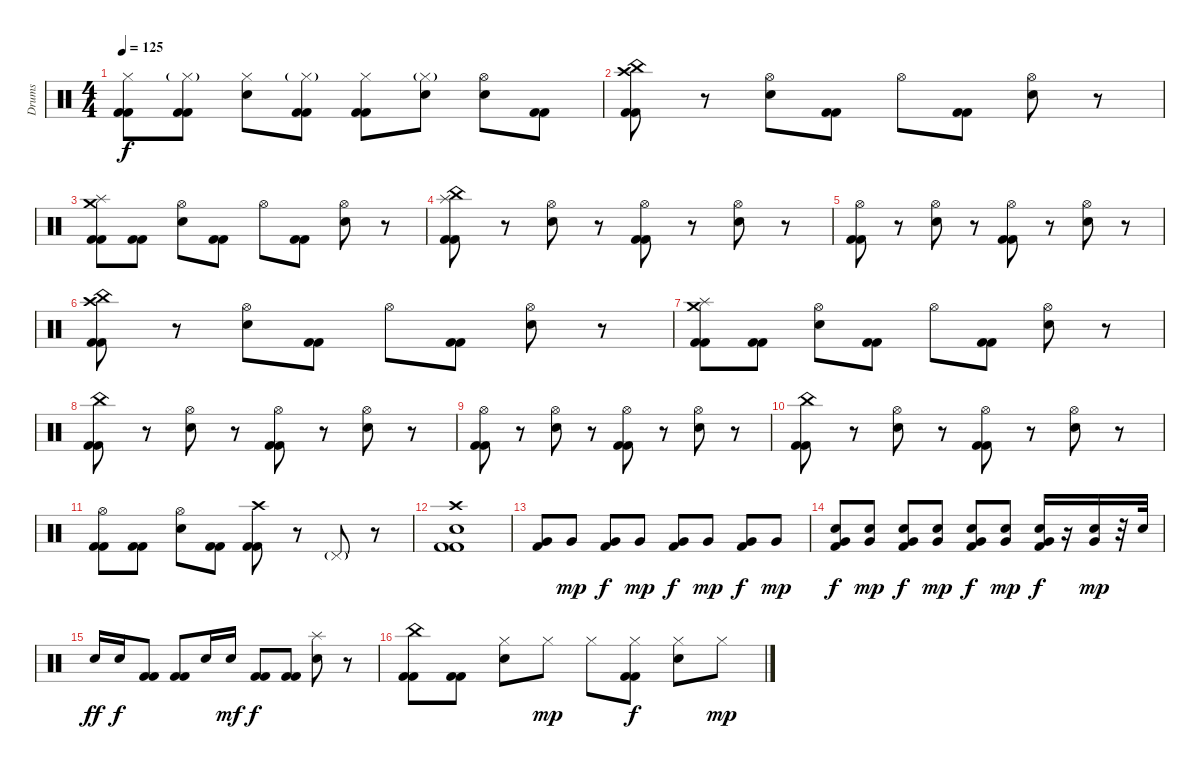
\track ("Drums" "Drums") {instrument percussion}
\staff {score}
\articulation defaults
\ts (4 4)
\tempo 125
\clef neutral
\ks c
("Hi-Hat (closed)" "Kick (hit) 2" "Kick (hit) 2").8{dy f} ("Hi-Hat (closed)"{g} "Kick (hit) 2" "Kick (hit) 2").8 ("Hi-Hat (closed)" "Electric Snare (hit)").8 ("Hi-Hat (closed)"{g} "Kick (hit) 2" "Kick (hit) 2").8 ("Hi-Hat (closed)" "Kick (hit) 2" "Kick (hit) 2").8 ("Hi-Hat (closed)"{g} "Electric Snare (hit)").8 ("Hi-Hat (open)" "Electric Snare (hit)").8 ("Kick (hit) 2" "Kick (hit) 2").8 |
("Crash high (hit)" "China (hit)" "Kick (hit) 2" "Kick (hit) 2").8 r.8 ("Hi-Hat (open)" "Electric Snare (hit)").8 ("Kick (hit) 2" "Kick (hit) 2").8 "Hi-Hat (open)".8 ("Kick (hit) 2" "Kick (hit) 2").8 ("Hi-Hat (open)" "Electric Snare (hit)").8 r.8 |
("Splash (hit)" "Crash medium (hit)" "Kick (hit) 2" "Kick (hit) 2").8 ("Kick (hit) 2" "Kick (hit) 2").8 ("Hi-Hat (open)" "Electric Snare (hit)").8 ("Kick (hit) 2" "Kick (hit) 2").8 "Hi-Hat (open)".8 ("Kick (hit) 2" "Kick (hit) 2").8 ("Hi-Hat (open)" "Electric Snare (hit)").8 r.8 |
("China (hit)" "Splash (hit)" "Kick (hit) 2" "Kick (hit) 2").8 r.8 ("Hi-Hat (open)" "Electric Snare (hit)").8 r.8 ("Hi-Hat (open)" "Kick (hit) 2" "Kick (hit) 2").8 r.8 ("Hi-Hat (open)" "Electric Snare (hit)").8 r.8 |
("Hi-Hat (open)" "Kick (hit) 2" "Kick (hit) 2").8 r.8 ("Hi-Hat (open)" "Electric Snare (hit)").8 r.8 ("Hi-Hat (open)" "Kick (hit) 2" "Kick (hit) 2").8 r.8 ("Hi-Hat (open)" "Electric Snare (hit)").8 r.8 |
("Crash high (hit)" "China (hit)" "Kick (hit) 2" "Kick (hit) 2").8 r.8 ("Hi-Hat (open)" "Electric Snare (hit)").8 ("Kick (hit) 2" "Kick (hit) 2").8 "Hi-Hat (open)".8 ("Kick (hit) 2" "Kick (hit) 2").8 ("Hi-Hat (open)" "Electric Snare (hit)").8 r.8 |
("Splash (hit)" "Crash medium (hit)" "Kick (hit) 2" "Kick (hit) 2").8 ("Kick (hit) 2" "Kick (hit) 2").8 ("Hi-Hat (open)" "Electric Snare (hit)").8 ("Kick (hit) 2" "Kick (hit) 2").8 "Hi-Hat (open)".8 ("Kick (hit) 2" "Kick (hit) 2").8 ("Hi-Hat (open)" "Electric Snare (hit)").8 r.8 |
("China (hit)" "Kick (hit) 2" "Kick (hit) 2").8 r.8 ("Hi-Hat (open)" "Electric Snare (hit)").8 r.8 ("Hi-Hat (open)" "Kick (hit) 2" "Kick (hit) 2").8 r.8 ("Hi-Hat (open)" "Electric Snare (hit)").8 r.8 |
("Hi-Hat (open)" "Kick (hit) 2" "Kick (hit) 2").8 r.8 ("Hi-Hat (open)" "Electric Snare (hit)").8 r.8 ("Hi-Hat (open)" "Kick (hit) 2" "Kick (hit) 2").8 r.8 ("Hi-Hat (open)" "Electric Snare (hit)").8 r.8 |
("China (hit)" "Kick (hit) 2" "Kick (hit) 2").8 r.8 ("Hi-Hat (open)" "Electric Snare (hit)").8 r.8 ("Hi-Hat (open)" "Kick (hit) 2" "Kick (hit) 2").8 r.8 ("Hi-Hat (open)" "Electric Snare (hit)").8 r.8 |
("Hi-Hat (open)" "Kick (hit) 2" "Kick (hit) 2").8 ("Kick (hit) 2" "Kick (hit) 2").8 ("Hi-Hat (open)" "Electric Snare (hit)").8 ("Kick (hit) 2" "Kick (hit) 2").8 ("Crash high (hit)" "Kick (hit) 2" "Kick (hit) 2").8 r.8 "Pedal Hi-Hat (hit)"{g}.8 r.8 |
("Crash high (hit)" "Electric Snare (hit)" "Kick (hit) 2" "Kick (hit) 2").1 |
("Very Low Tom (hit)" "Kick (hit) 2").8 "Very Low Tom (hit)".8{dy mp} ("Very Low Tom (hit)" "Kick (hit) 2").8{dy f} "Very Low Tom (hit)".8{dy mp} ("Very Low Tom (hit)" "Kick (hit) 2").8{dy f} "Very Low Tom (hit)".8{dy mp} ("Very Low Tom (hit)" "Kick (hit) 2").8{dy f} "Very Low Tom (hit)".8{dy mp} |
("Snare (hit) 2" "Very Low Tom (hit)" "Kick (hit) 2").8{dy f} ("Snare (hit) 2" "Very Low Tom (hit)").8{dy mp} ("Snare (hit) 2" "Very Low Tom (hit)" "Kick (hit) 2").8{dy f} ("Snare (hit) 2" "Very Low Tom (hit)").8{dy mp} ("Snare (hit) 2" "Very Low Tom (hit)" "Kick (hit) 2").8{dy f} ("Snare (hit) 2" "Very Low Tom (hit)").8{dy mp} ("Snare (hit) 2" "Very Low Tom (hit)" "Kick (hit) 2").16{dy f} r.16 ("Snare (hit) 2" "Very Low Tom (hit)").16{dy mp} r.32 "Snare (hit) 2".32 |
"Snare (hit) 2".16{dy ff} "Snare (hit) 2".16{dy f} ("Kick (hit) 2" "Kick (hit) 2").8 ("Kick (hit) 2" "Kick (hit) 2").8 "Snare (hit) 2".16 "Snare (hit) 2".16{dy mf} ("Kick (hit) 2" "Kick (hit) 2").8{dy f} ("Kick (hit) 2" "Kick (hit) 2").8 ("Splash (hit)" "Snare (hit) 2").8 r.8 |
("China (hit)" "Kick (hit) 2" "Kick (hit) 2").8 ("Kick (hit) 2" "Kick (hit) 2").8 ("Hi-Hat (closed)" "Snare (hit) 2").8 "Hi-Hat (closed)".8{dy mp} "Hi-Hat (closed)".8 ("Hi-Hat (closed)" "Kick (hit) 2" "Kick (hit) 2").8{dy f} ("Hi-Hat (closed)" "Snare (hit) 2").8 "Hi-Hat (closed)".8{dy mp}
